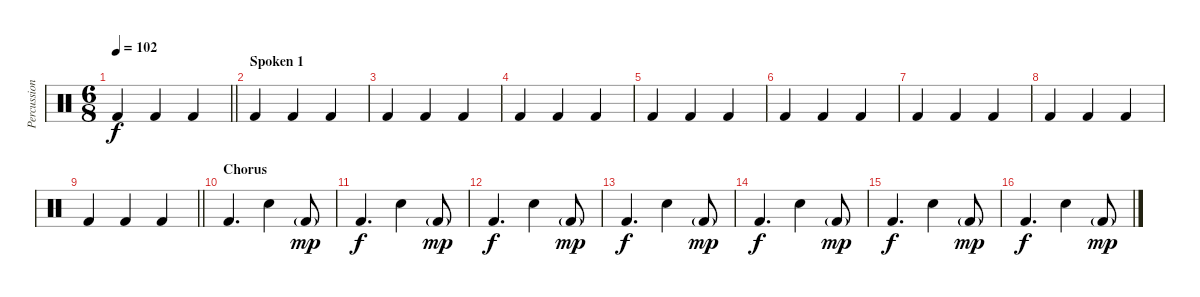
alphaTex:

\track ("Percussion" "Percussion") {instrument percussion}
\staff {score}
\articulation defaults
\ts (6 8)
\tempo 102
\clef neutral
\barLineRight lightlight
\ks c "Kick (hit) 2".4{dy f} "Kick (hit) 2".4 "Kick (hit) 2".4
|
\section ("" "Spoken 1")
"Kick (hit) 2".4 "Kick (hit) 2".4 "Kick (hit) 2".4 |
"Kick (hit) 2".4 "Kick (hit) 2".4 "Kick (hit) 2".4 |
"Kick (hit) 2".4 "Kick (hit) 2".4 "Kick (hit) 2".4 |
"Kick (hit) 2".4 "Kick (hit) 2".4 "Kick (hit) 2".4 |
"Kick (hit) 2".4 "Kick (hit) 2".4 "Kick (hit) 2".4 |
"Kick (hit) 2".4 "Kick (hit) 2".4 "Kick (hit) 2".4 |
"Kick (hit) 2".4 "Kick (hit) 2".4 "Kick (hit) 2".4 |
\barLineRight lightlight "Kick (hit) 2".4 "Kick (hit) 2".4 "Kick (hit) 2".4
|
\section ("" "Chorus")
"Kick (hit) 2".4{d} "Snare (hit) 2".4 "Kick (hit) 2"{g}.8{dy mp} |
"Kick (hit) 2".4{d dy f} "Snare (hit) 2".4 "Kick (hit) 2"{g}.8{dy mp} |
"Kick (hit) 2".4{d dy f} "Snare (hit) 2".4 "Kick (hit) 2"{g}.8{dy mp} |
"Kick (hit) 2".4{d dy f} "Snare (hit) 2".4 "Kick (hit) 2"{g}.8{dy mp} |
"Kick (hit) 2".4{d dy f} "Snare (hit) 2".4 "Kick (hit) 2"{g}.8{dy mp} |
"Kick (hit) 2".4{d dy f} "Snare (hit) 2".4 "Kick (hit) 2"{g}.8{dy mp} |
"Kick (hit) 2".4{d dy f} "Snare (hit) 2".4 "Kick (hit) 2"{g}.8{dy mp}
